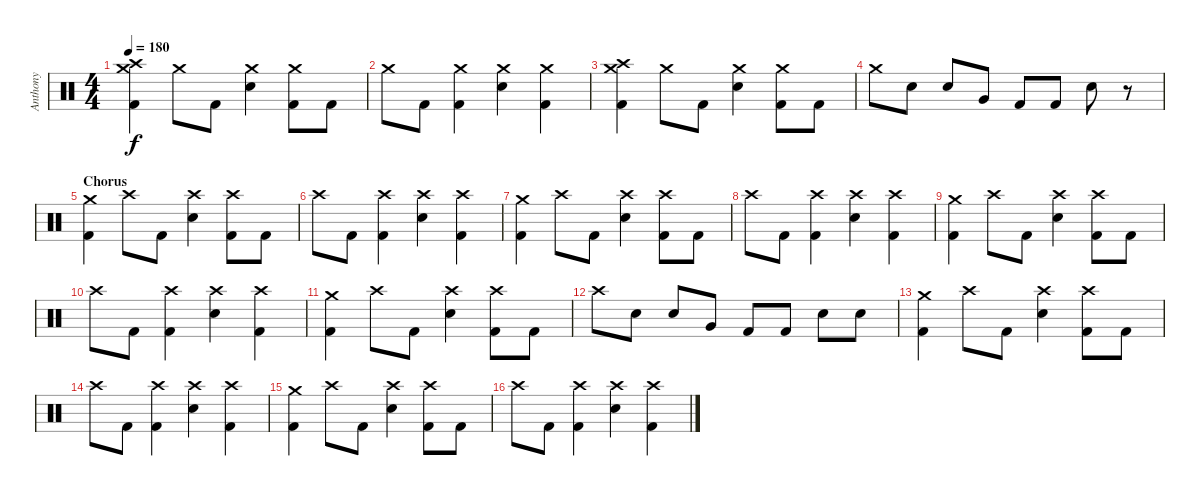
\track ("Anthony" "Anthony") {instrument percussion}
\staff {score}
\articulation defaults
\ts (4 4)
\tempo 180
\clef neutral
\ks c
("Crash medium (hit)" "Crash high (hit)" "Kick (hit) 2").4{dy f} "Crash medium (hit)".8 "Kick (hit) 2".8 ("Crash medium (hit)" "Electric Snare (hit)").4 ("Crash medium (hit)" "Kick (hit) 2").8 "Kick (hit) 2".8 |
"Crash medium (hit)".8 "Kick (hit) 2".8 ("Crash medium (hit)" "Kick (hit) 2").4 ("Crash medium (hit)" "Electric Snare (hit)").4 ("Crash medium (hit)" "Kick (hit) 2").4 |
("Crash medium (hit)" "Crash high (hit)" "Kick (hit) 2").4 "Crash medium (hit)".8 "Kick (hit) 2".8 ("Crash medium (hit)" "Electric Snare (hit)").4 ("Crash medium (hit)" "Kick (hit) 2").8 "Kick (hit) 2".8 |
"Crash medium (hit)".8 "Electric Snare (hit)".8 "Electric Snare (hit)".8 "Very Low Tom (hit)".8 "Kick (hit) 2".8 "Kick (hit) 2".8 "Electric Snare (hit)".8 r.8 |
\section ("" "Chorus")
("Crash medium (hit)" "Kick (hit) 2").4 "Crash high (hit)".8 "Kick (hit) 2".8 ("Crash high (hit)" "Electric Snare (hit)").4 ("Crash high (hit)" "Kick (hit) 2").8 "Kick (hit) 2".8 |
"Crash high (hit)".8 "Kick (hit) 2".8 ("Crash high (hit)" "Kick (hit) 2").4 ("Crash high (hit)" "Electric Snare (hit)").4 ("Crash high (hit)" "Kick (hit) 2").4 |
("Crash medium (hit)" "Kick (hit) 2").4 "Crash high (hit)".8 "Kick (hit) 2".8 ("Crash high (hit)" "Electric Snare (hit)").4 ("Crash high (hit)" "Kick (hit) 2").8 "Kick (hit) 2".8 |
"Crash high (hit)".8 "Kick (hit) 2".8 ("Crash high (hit)" "Kick (hit) 2").4 ("Crash high (hit)" "Electric Snare (hit)").4 ("Crash high (hit)" "Kick (hit) 2").4 |
("Crash medium (hit)" "Kick (hit) 2").4 "Crash high (hit)".8 "Kick (hit) 2".8 ("Crash high (hit)" "Electric Snare (hit)").4 ("Crash high (hit)" "Kick (hit) 2").8 "Kick (hit) 2".8 |
"Crash high (hit)".8 "Kick (hit) 2".8 ("Crash high (hit)" "Kick (hit) 2").4 ("Crash high (hit)" "Electric Snare (hit)").4 ("Crash high (hit)" "Kick (hit) 2").4 |
("Crash medium (hit)" "Kick (hit) 2").4 "Crash high (hit)".8 "Kick (hit) 2".8 ("Crash high (hit)" "Electric Snare (hit)").4 ("Crash high (hit)" "Kick (hit) 2").8 "Kick (hit) 2".8 |
"Crash high (hit)".8 "Electric Snare (hit)".8 "Electric Snare (hit)".8 "Very Low Tom (hit)".8 "Kick (hit) 2".8 "Kick (hit) 2".8 "Electric Snare (hit)".8 "Electric Snare (hit)".8 |
("Crash medium (hit)" "Kick (hit) 2").4 "Crash high (hit)".8 "Kick (hit) 2".8 ("Crash high (hit)" "Electric Snare (hit)").4 ("Crash high (hit)" "Kick (hit) 2").8 "Kick (hit) 2".8 |
"Crash high (hit)".8 "Kick (hit) 2".8 ("Crash high (hit)" "Kick (hit) 2").4 ("Crash high (hit)" "Electric Snare (hit)").4 ("Crash high (hit)" "Kick (hit) 2").4 |
("Crash medium (hit)" "Kick (hit) 2").4 "Crash high (hit)".8 "Kick (hit) 2".8 ("Crash high (hit)" "Electric Snare (hit)").4 ("Crash high (hit)" "Kick (hit) 2").8 "Kick (hit) 2".8 |
"Crash high (hit)".8 "Kick (hit) 2".8 ("Crash high (hit)" "Kick (hit) 2").4 ("Crash high (hit)" "Electric Snare (hit)").4 ("Crash high (hit)" "Kick (hit) 2").4
